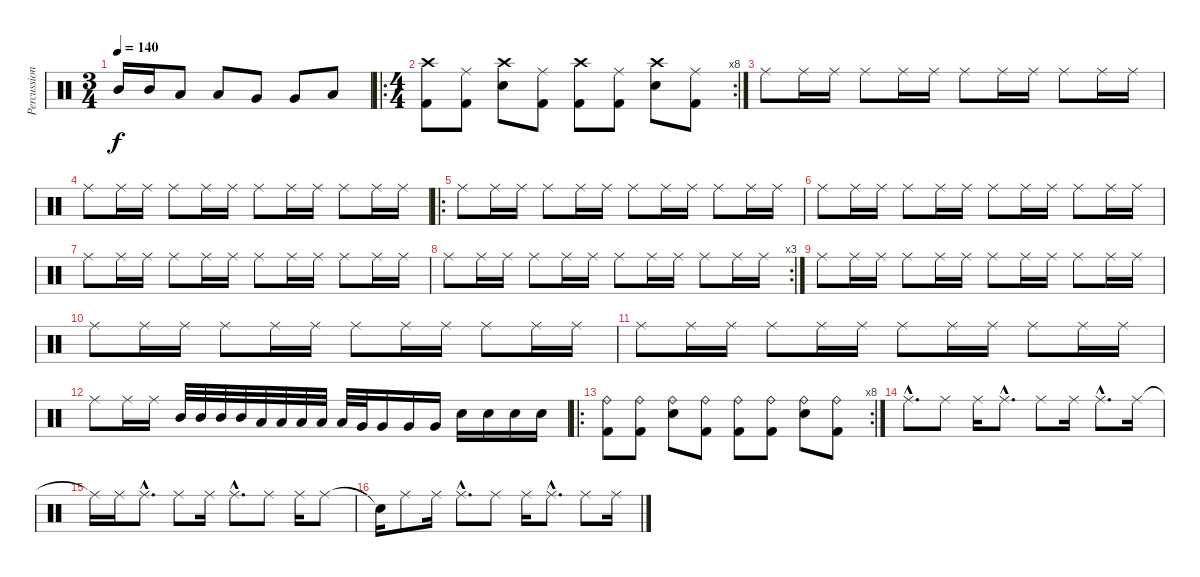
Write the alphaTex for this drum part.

\track ("Percussion" "Percussion") {instrument percussion}
\staff {score}
\articulation defaults
\ts (3 4)
\tempo 140
\clef neutral
\ks c "Mid Tom (hit)".16{dy f} "Mid Tom (hit)".16 "Low Tom (hit)".8 "Low Tom (hit)".8 "Very Low Tom (hit)".8 "Very Low Tom (hit)".8 "Low Floor Tom (hit)".8
|
\ro
\rc 8
\ts (4 4)
("Crash high (hit)" "Kick (hit) 2").8 ("Ride (middle)" "Kick (hit) 2").8 ("Crash high (hit)" "Snare (hit) 2").8 ("Ride (middle)" "Kick (hit) 2").8 ("Crash high (hit)" "Kick (hit) 2").8 ("Ride (middle)" "Kick (hit) 2").8 ("Crash high (hit)" "Snare (hit) 2").8 ("Ride (middle)" "Kick (hit) 2").8 |
"Ride (middle)".8 "Ride (middle)".16 "Ride (middle)".16 "Ride (middle)".8 "Ride (middle)".16 "Ride (middle)".16 "Ride (middle)".8 "Ride (middle)".16 "Ride (middle)".16 "Ride (middle)".8 "Ride (middle)".16 "Ride (middle)".16 |
"Ride (middle)".8 "Ride (middle)".16 "Ride (middle)".16 "Ride (middle)".8 "Ride (middle)".16 "Ride (middle)".16 "Ride (middle)".8 "Ride (middle)".16 "Ride (middle)".16 "Ride (middle)".8 "Ride (middle)".16 "Ride (middle)".16 |
\ro "Ride (middle)".8 "Ride (middle)".16 "Ride (middle)".16 "Ride (middle)".8 "Ride (middle)".16 "Ride (middle)".16 "Ride (middle)".8 "Ride (middle)".16 "Ride (middle)".16 "Ride (middle)".8 "Ride (middle)".16 "Ride (middle)".16
|
"Ride (middle)".8 "Ride (middle)".16 "Ride (middle)".16 "Ride (middle)".8 "Ride (middle)".16 "Ride (middle)".16 "Ride (middle)".8 "Ride (middle)".16 "Ride (middle)".16 "Ride (middle)".8 "Ride (middle)".16 "Ride (middle)".16 |
"Ride (middle)".8 "Ride (middle)".16 "Ride (middle)".16 "Ride (middle)".8 "Ride (middle)".16 "Ride (middle)".16 "Ride (middle)".8 "Ride (middle)".16 "Ride (middle)".16 "Ride (middle)".8 "Ride (middle)".16 "Ride (middle)".16 |
\rc 3 "Ride (middle)".8 "Ride (middle)".16 "Ride (middle)".16 "Ride (middle)".8 "Ride (middle)".16 "Ride (middle)".16 "Ride (middle)".8 "Ride (middle)".16 "Ride (middle)".16 "Ride (middle)".8 "Ride (middle)".16 "Ride (middle)".16
|
"Ride (middle)".8 "Ride (middle)".16 "Ride (middle)".16 "Ride (middle)".8 "Ride (middle)".16 "Ride (middle)".16 "Ride (middle)".8 "Ride (middle)".16 "Ride (middle)".16 "Ride (middle)".8 "Ride (middle)".16 "Ride (middle)".16 |
"Ride (middle)".8 "Ride (middle)".16 "Ride (middle)".16 "Ride (middle)".8 "Ride (middle)".16 "Ride (middle)".16 "Ride (middle)".8 "Ride (middle)".16 "Ride (middle)".16 "Ride (middle)".8 "Ride (middle)".16 "Ride (middle)".16 |
"Ride (middle)".8 "Ride (middle)".16 "Ride (middle)".16 "Ride (middle)".8 "Ride (middle)".16 "Ride (middle)".16 "Ride (middle)".8 "Ride (middle)".16 "Ride (middle)".16 "Ride (middle)".8 "Ride (middle)".16 "Ride (middle)".16 |
"Ride (middle)".8 "Ride (middle)".16 "Ride (middle)".16 "Mid Tom (hit)".32 "Mid Tom (hit)".32 "Mid Tom (hit)".32 "Mid Tom (hit)".32 "Low Tom (hit)".32 "Low Tom (hit)".32 "Low Tom (hit)".32 "Low Tom (hit)".32 "Low Tom (hit)".32 "Very Low Tom (hit)".32 "Very Low Tom (hit)".16 "Very Low Tom (hit)".16 "Very Low Tom (hit)".16 "Snare (hit) 2".16 "Snare (hit) 2".16 "Snare (hit) 2".16 "Snare (hit) 2".16 |
\ro
\rc 8
("Ride (bell)" "Kick (hit) 2").8 ("Ride (bell)" "Kick (hit) 2").8 ("Ride (bell)" "Snare (hit) 2").8 ("Ride (bell)" "Kick (hit) 2").8 ("Ride (bell)" "Kick (hit) 2").8 ("Ride (bell)" "Kick (hit) 2").8 ("Ride (bell)" "Snare (hit) 2").8 ("Ride (bell)" "Kick (hit) 2").8 |
"Ride (middle)"{hac}.8{d} "Ride (middle)".8 "Ride (middle)".16 "Ride (middle)"{hac}.8{d} "Ride (middle)".8 "Ride (middle)".16 "Ride (middle)"{hac}.8{d} "Ride (middle)".16 |
"Ride (middle)"{t}.16 "Ride (middle)".16 "Ride (middle)"{hac}.8{d} "Ride (middle)".8 "Ride (middle)".16 "Ride (middle)"{hac}.8{d} "Ride (middle)".8 "Ride (middle)".16 "Ride (middle)".8 |
"Snare (hit)"{t}.16 "Ride (middle)".8 "Ride (middle)".16 "Ride (middle)"{hac}.8{d} "Ride (middle)".8 "Ride (middle)".16 "Ride (middle)"{hac}.8{d} "Ride (middle)".8 "Ride (middle)".16
